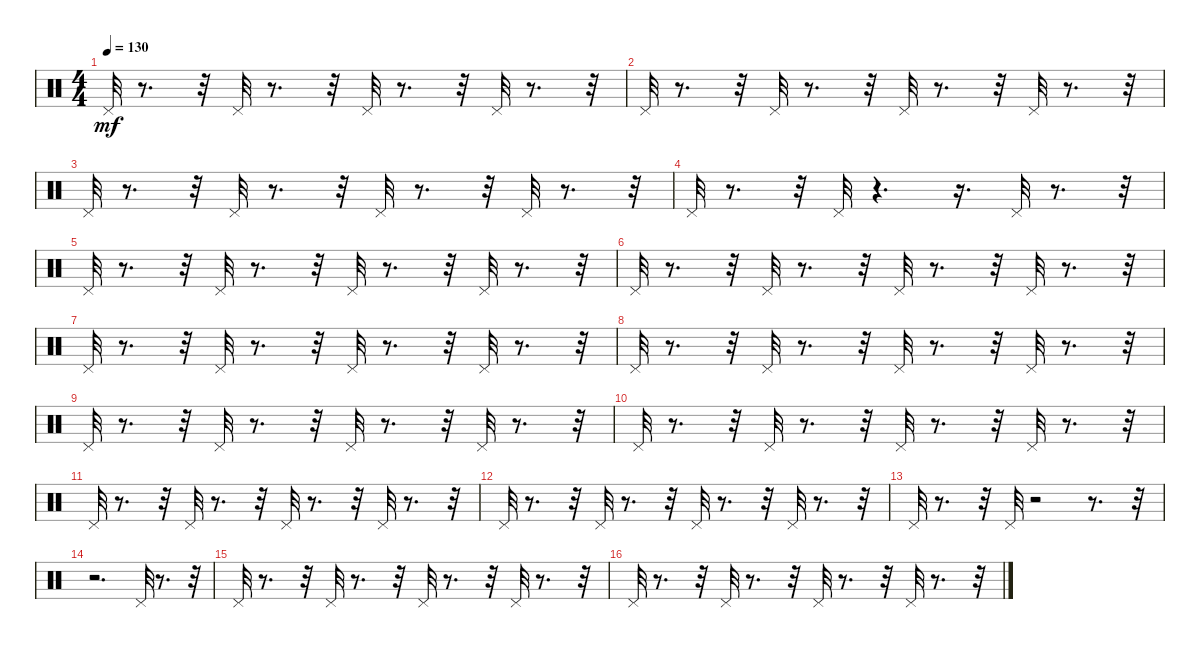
\track "" {instrument percussion}
\staff {score}
\articulation defaults
\ts (4 4)
\tempo 130
\clef neutral
\ks c "Pedal Hi-Hat (hit)".32{dy mf}
r.8{d} r.32 "Pedal Hi-Hat (hit)".32 r.8{d} r.32 "Pedal Hi-Hat (hit)".32 r.8{d} r.32 "Pedal Hi-Hat (hit)".32 r.8{d} r.32 |
"Pedal Hi-Hat (hit)".32 r.8{d} r.32 "Pedal Hi-Hat (hit)".32 r.8{d} r.32 "Pedal Hi-Hat (hit)".32 r.8{d} r.32 "Pedal Hi-Hat (hit)".32 r.8{d} r.32 |
"Pedal Hi-Hat (hit)".32 r.8{d} r.32 "Pedal Hi-Hat (hit)".32 r.8{d} r.32 "Pedal Hi-Hat (hit)".32 r.8{d} r.32 "Pedal Hi-Hat (hit)".32 r.8{d} r.32 |
"Pedal Hi-Hat (hit)".32 r.8{d} r.32 "Pedal Hi-Hat (hit)".32 r.4{d} r.16{d} "Pedal Hi-Hat (hit)".32 r.8{d} r.32 |
"Pedal Hi-Hat (hit)".32 r.8{d} r.32 "Pedal Hi-Hat (hit)".32 r.8{d} r.32 "Pedal Hi-Hat (hit)".32 r.8{d} r.32 "Pedal Hi-Hat (hit)".32 r.8{d} r.32 |
"Pedal Hi-Hat (hit)".32 r.8{d} r.32 "Pedal Hi-Hat (hit)".32 r.8{d} r.32 "Pedal Hi-Hat (hit)".32 r.8{d} r.32 "Pedal Hi-Hat (hit)".32 r.8{d} r.32 |
"Pedal Hi-Hat (hit)".32 r.8{d} r.32 "Pedal Hi-Hat (hit)".32 r.8{d} r.32 "Pedal Hi-Hat (hit)".32 r.8{d} r.32 "Pedal Hi-Hat (hit)".32 r.8{d} r.32 |
"Pedal Hi-Hat (hit)".32 r.8{d} r.32 "Pedal Hi-Hat (hit)".32 r.8{d} r.32 "Pedal Hi-Hat (hit)".32 r.8{d} r.32 "Pedal Hi-Hat (hit)".32 r.8{d} r.32 |
"Pedal Hi-Hat (hit)".32 r.8{d} r.32 "Pedal Hi-Hat (hit)".32 r.8{d} r.32 "Pedal Hi-Hat (hit)".32 r.8{d} r.32 "Pedal Hi-Hat (hit)".32 r.8{d} r.32 |
"Pedal Hi-Hat (hit)".32 r.8{d} r.32 "Pedal Hi-Hat (hit)".32 r.8{d} r.32 "Pedal Hi-Hat (hit)".32 r.8{d} r.32 "Pedal Hi-Hat (hit)".32 r.8{d} r.32 |
"Pedal Hi-Hat (hit)".32 r.8{d} r.32 "Pedal Hi-Hat (hit)".32 r.8{d} r.32 "Pedal Hi-Hat (hit)".32 r.8{d} r.32 "Pedal Hi-Hat (hit)".32 r.8{d} r.32 |
"Pedal Hi-Hat (hit)".32 r.8{d} r.32 "Pedal Hi-Hat (hit)".32 r.8{d} r.32 "Pedal Hi-Hat (hit)".32 r.8{d} r.32 "Pedal Hi-Hat (hit)".32 r.8{d} r.32 |
"Pedal Hi-Hat (hit)".32 r.8{d} r.32 "Pedal Hi-Hat (hit)".32 r.2 r.8{d} r.32 |
r.2{d} "Pedal Hi-Hat (hit)".32 r.8{d} r.32 |
"Pedal Hi-Hat (hit)".32 r.8{d} r.32 "Pedal Hi-Hat (hit)".32 r.8{d} r.32 "Pedal Hi-Hat (hit)".32 r.8{d} r.32 "Pedal Hi-Hat (hit)".32 r.8{d} r.32 |
"Pedal Hi-Hat (hit)".32 r.8{d} r.32 "Pedal Hi-Hat (hit)".32 r.8{d} r.32 "Pedal Hi-Hat (hit)".32 r.8{d} r.32 "Pedal Hi-Hat (hit)".32 r.8{d} r.32
